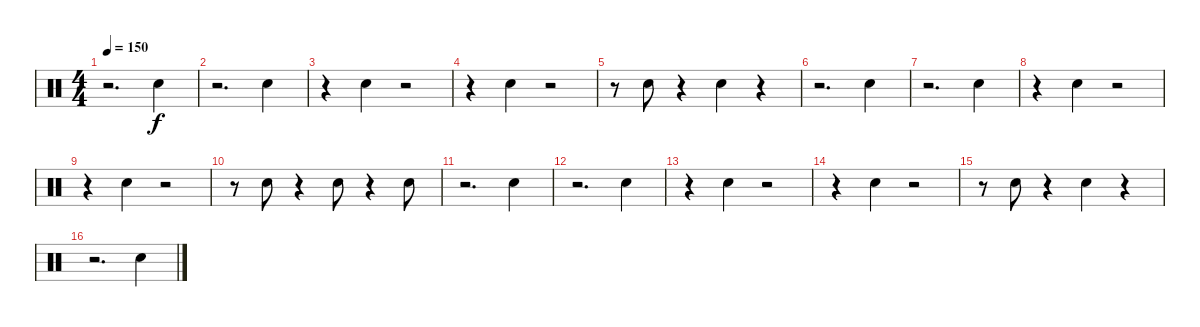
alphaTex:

\track "" {instrument percussion}
\staff {score}
\articulation defaults
\ts (4 4)
\tempo 150
\clef neutral
\ks c
r.2{d dy f} "Electric Snare (hit)".4 |
r.2{d} "Electric Snare (hit)".4 |
r.4 "Electric Snare (hit)".4 r.2 |
r.4 "Electric Snare (hit)".4 r.2 |
r.8 "Electric Snare (hit)".8 r.4 "Electric Snare (hit)".4 r.4 |
r.2{d} "Electric Snare (hit)".4 |
r.2{d} "Electric Snare (hit)".4 |
r.4 "Electric Snare (hit)".4 r.2 |
r.4 "Electric Snare (hit)".4 r.2 |
r.8 "Electric Snare (hit)".8 r.4 "Electric Snare (hit)".8 r.4 "Electric Snare (hit)".8 |
r.2{d} "Electric Snare (hit)".4 |
r.2{d} "Electric Snare (hit)".4 |
r.4 "Electric Snare (hit)".4 r.2 |
r.4 "Electric Snare (hit)".4 r.2 |
r.8 "Electric Snare (hit)".8 r.4 "Electric Snare (hit)".4 r.4 |
r.2{d} "Electric Snare (hit)".4
